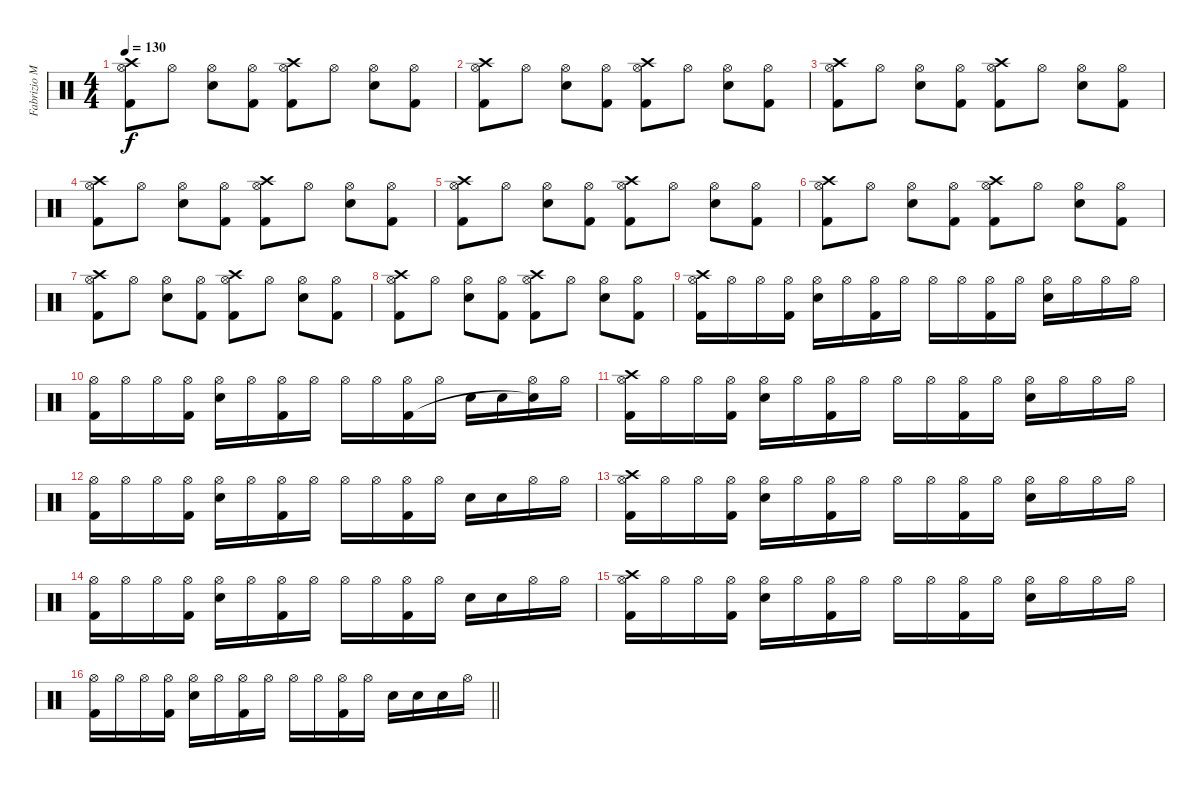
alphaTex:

\track ("Fabrizio Moretti" "Fabrizio M") {instrument percussion bank 127}
\staff {score}
\articulation defaults
\ts (4 4)
\tempo 130
\clef neutral
\ks c
("Crash high (hit)" "Hi-Hat (open)" "Kick (hit) 2").8{dy f} "Hi-Hat (open)".8 ("Hi-Hat (open)" "Electric Snare (hit)").8 ("Hi-Hat (open)" "Kick (hit) 2").8 ("Crash high (hit)" "Hi-Hat (open)" "Kick (hit) 2").8 "Hi-Hat (open)".8 ("Hi-Hat (open)" "Electric Snare (hit)").8 ("Hi-Hat (open)" "Kick (hit) 2").8 |
("Crash high (hit)" "Hi-Hat (open)" "Kick (hit) 2").8 "Hi-Hat (open)".8 ("Hi-Hat (open)" "Electric Snare (hit)").8 ("Hi-Hat (open)" "Kick (hit) 2").8 ("Crash high (hit)" "Hi-Hat (open)" "Kick (hit) 2").8 "Hi-Hat (open)".8 ("Hi-Hat (open)" "Electric Snare (hit)").8 ("Hi-Hat (open)" "Kick (hit) 2").8 |
("Crash high (hit)" "Hi-Hat (open)" "Kick (hit) 2").8 "Hi-Hat (open)".8 ("Hi-Hat (open)" "Electric Snare (hit)").8 ("Hi-Hat (open)" "Kick (hit) 2").8 ("Crash high (hit)" "Hi-Hat (open)" "Kick (hit) 2").8 "Hi-Hat (open)".8 ("Hi-Hat (open)" "Electric Snare (hit)").8 ("Hi-Hat (open)" "Kick (hit) 2").8 |
("Crash high (hit)" "Hi-Hat (open)" "Kick (hit) 2").8 "Hi-Hat (open)".8 ("Hi-Hat (open)" "Electric Snare (hit)").8 ("Hi-Hat (open)" "Kick (hit) 2").8 ("Crash high (hit)" "Hi-Hat (open)" "Kick (hit) 2").8 "Hi-Hat (open)".8 ("Hi-Hat (open)" "Electric Snare (hit)").8 ("Hi-Hat (open)" "Kick (hit) 2").8 |
("Crash high (hit)" "Hi-Hat (open)" "Kick (hit) 2").8 "Hi-Hat (open)".8 ("Hi-Hat (open)" "Electric Snare (hit)").8 ("Hi-Hat (open)" "Kick (hit) 2").8 ("Crash high (hit)" "Hi-Hat (open)" "Kick (hit) 2").8 "Hi-Hat (open)".8 ("Hi-Hat (open)" "Electric Snare (hit)").8 ("Hi-Hat (open)" "Kick (hit) 2").8 |
("Crash high (hit)" "Hi-Hat (open)" "Kick (hit) 2").8 "Hi-Hat (open)".8 ("Hi-Hat (open)" "Electric Snare (hit)").8 ("Hi-Hat (open)" "Kick (hit) 2").8 ("Crash high (hit)" "Hi-Hat (open)" "Kick (hit) 2").8 "Hi-Hat (open)".8 ("Hi-Hat (open)" "Electric Snare (hit)").8 ("Hi-Hat (open)" "Kick (hit) 2").8 |
("Crash high (hit)" "Hi-Hat (open)" "Kick (hit) 2").8 "Hi-Hat (open)".8 ("Hi-Hat (open)" "Electric Snare (hit)").8 ("Hi-Hat (open)" "Kick (hit) 2").8 ("Crash high (hit)" "Hi-Hat (open)" "Kick (hit) 2").8 "Hi-Hat (open)".8 ("Hi-Hat (open)" "Electric Snare (hit)").8 ("Hi-Hat (open)" "Kick (hit) 2").8 |
("Crash high (hit)" "Hi-Hat (open)" "Kick (hit) 2").8 "Hi-Hat (open)".8 ("Hi-Hat (open)" "Electric Snare (hit)").8 ("Hi-Hat (open)" "Kick (hit) 2").8 ("Crash high (hit)" "Hi-Hat (open)" "Kick (hit) 2").8 "Hi-Hat (open)".8 ("Hi-Hat (open)" "Electric Snare (hit)").8 ("Hi-Hat (open)" "Kick (hit) 2").8 |
("Crash high (hit)" "Hi-Hat (open)" "Kick (hit) 2").16 "Hi-Hat (open)".16 "Hi-Hat (open)".16 ("Hi-Hat (open)" "Kick (hit) 2").16 ("Hi-Hat (open)" "Electric Snare (hit)").16 "Hi-Hat (open)".16 ("Hi-Hat (open)" "Kick (hit) 2").16 "Hi-Hat (open)".16 "Hi-Hat (open)".16 "Hi-Hat (open)".16 ("Hi-Hat (open)" "Kick (hit) 2").16 "Hi-Hat (open)".16 ("Hi-Hat (open)" "Electric Snare (hit)").16 "Hi-Hat (open)".16 "Hi-Hat (open)".16 "Hi-Hat (open)".16 |
("Hi-Hat (open)" "Kick (hit) 2").16 "Hi-Hat (open)".16 "Hi-Hat (open)".16 ("Hi-Hat (open)" "Kick (hit) 2").16 ("Hi-Hat (open)" "Electric Snare (hit)").16 "Hi-Hat (open)".16 ("Hi-Hat (open)" "Kick (hit) 2").16 "Hi-Hat (open)".16 "Hi-Hat (open)".16 "Hi-Hat (open)".16 ("Hi-Hat (open)" "Kick (hit) 2").16 "Hi-Hat (open)".16 "Electric Snare (hit)".16 "Electric Snare (hit)".16 ("Hi-Hat (open)" "Electric Snare (hit)"{t}).16 "Hi-Hat (open)".16 |
("Crash high (hit)" "Hi-Hat (open)" "Kick (hit) 2").16 "Hi-Hat (open)".16 "Hi-Hat (open)".16 ("Hi-Hat (open)" "Kick (hit) 2").16 ("Hi-Hat (open)" "Electric Snare (hit)").16 "Hi-Hat (open)".16 ("Hi-Hat (open)" "Kick (hit) 2").16 "Hi-Hat (open)".16 "Hi-Hat (open)".16 "Hi-Hat (open)".16 ("Hi-Hat (open)" "Kick (hit) 2").16 "Hi-Hat (open)".16 ("Hi-Hat (open)" "Electric Snare (hit)").16 "Hi-Hat (open)".16 "Hi-Hat (open)".16 "Hi-Hat (open)".16 |
("Hi-Hat (open)" "Kick (hit) 2").16 "Hi-Hat (open)".16 "Hi-Hat (open)".16 ("Hi-Hat (open)" "Kick (hit) 2").16 ("Hi-Hat (open)" "Electric Snare (hit)").16 "Hi-Hat (open)".16 ("Hi-Hat (open)" "Kick (hit) 2").16 "Hi-Hat (open)".16 "Hi-Hat (open)".16 "Hi-Hat (open)".16 ("Hi-Hat (open)" "Kick (hit) 2").16 "Hi-Hat (open)".16 "Electric Snare (hit)".16 "Electric Snare (hit)".16 "Hi-Hat (open)".16 "Hi-Hat (open)".16 |
("Crash high (hit)" "Hi-Hat (open)" "Kick (hit) 2").16 "Hi-Hat (open)".16 "Hi-Hat (open)".16 ("Hi-Hat (open)" "Kick (hit) 2").16 ("Hi-Hat (open)" "Electric Snare (hit)").16 "Hi-Hat (open)".16 ("Hi-Hat (open)" "Kick (hit) 2").16 "Hi-Hat (open)".16 "Hi-Hat (open)".16 "Hi-Hat (open)".16 ("Hi-Hat (open)" "Kick (hit) 2").16 "Hi-Hat (open)".16 ("Hi-Hat (open)" "Electric Snare (hit)").16 "Hi-Hat (open)".16 "Hi-Hat (open)".16 "Hi-Hat (open)".16 |
("Hi-Hat (open)" "Kick (hit) 2").16 "Hi-Hat (open)".16 "Hi-Hat (open)".16 ("Hi-Hat (open)" "Kick (hit) 2").16 ("Hi-Hat (open)" "Electric Snare (hit)").16 "Hi-Hat (open)".16 ("Hi-Hat (open)" "Kick (hit) 2").16 "Hi-Hat (open)".16 "Hi-Hat (open)".16 "Hi-Hat (open)".16 ("Hi-Hat (open)" "Kick (hit) 2").16 "Hi-Hat (open)".16 "Electric Snare (hit)".16 "Electric Snare (hit)".16 "Hi-Hat (open)".16 "Hi-Hat (open)".16 |
("Crash high (hit)" "Hi-Hat (open)" "Kick (hit) 2").16 "Hi-Hat (open)".16 "Hi-Hat (open)".16 ("Hi-Hat (open)" "Kick (hit) 2").16 ("Hi-Hat (open)" "Electric Snare (hit)").16 "Hi-Hat (open)".16 ("Hi-Hat (open)" "Kick (hit) 2").16 "Hi-Hat (open)".16 "Hi-Hat (open)".16 "Hi-Hat (open)".16 ("Hi-Hat (open)" "Kick (hit) 2").16 "Hi-Hat (open)".16 ("Hi-Hat (open)" "Electric Snare (hit)").16 "Hi-Hat (open)".16 "Hi-Hat (open)".16 "Hi-Hat (open)".16 |
\barLineRight lightlight
("Hi-Hat (open)" "Kick (hit) 2").16 "Hi-Hat (open)".16 "Hi-Hat (open)".16 ("Hi-Hat (open)" "Kick (hit) 2").16 ("Hi-Hat (open)" "Electric Snare (hit)").16 "Hi-Hat (open)".16 ("Hi-Hat (open)" "Kick (hit) 2").16 "Hi-Hat (open)".16 "Hi-Hat (open)".16 "Hi-Hat (open)".16 ("Hi-Hat (open)" "Kick (hit) 2").16 "Hi-Hat (open)".16 "Electric Snare (hit)".16 "Electric Snare (hit)".16 "Electric Snare (hit)".16 "Hi-Hat (open)".16
